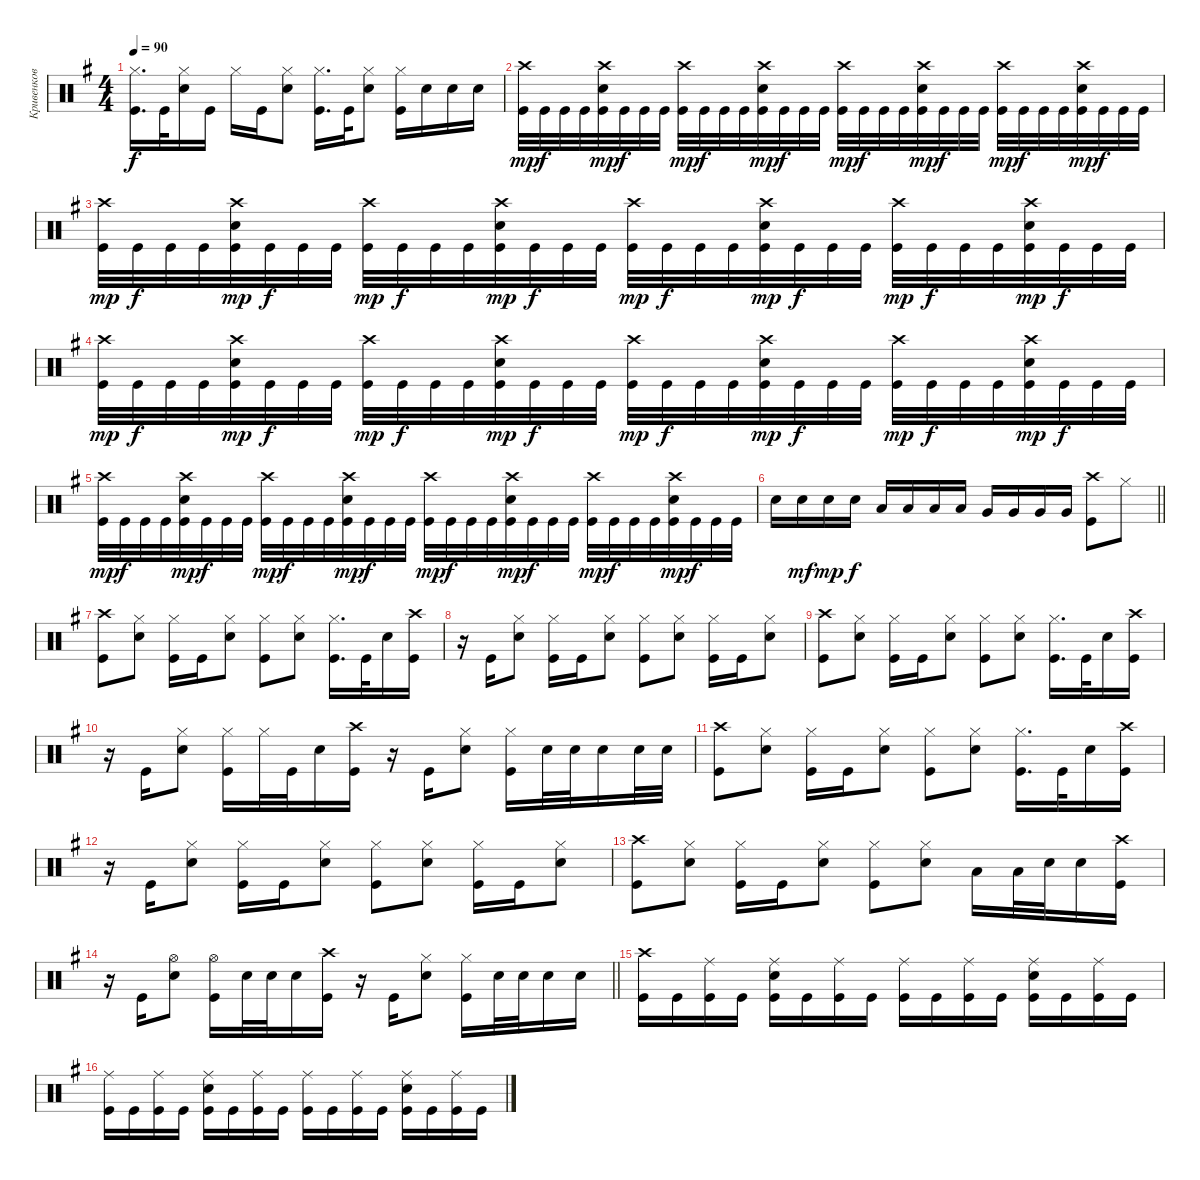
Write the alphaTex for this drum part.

\track ("Кривенков" "Кривенков") {instrument percussion}
\staff {score}
\articulation defaults
\ts (4 4)
\tempo 90
\clef neutral
\ks eminor
("Kick (hit)" "Hi-Hat (closed)").16{d dy f} "Kick (hit)".32 ("Hi-Hat (closed)" "Snare (hit) 2").16 "Kick (hit)".16 "Hi-Hat (closed)".16 "Kick (hit)".16 ("Snare (hit) 2" "Hi-Hat (closed)").8 ("Kick (hit)" "Hi-Hat (closed)").16{d} "Kick (hit)".32 ("Hi-Hat (closed)" "Snare (hit) 2").8 ("Hi-Hat (closed)" "Kick (hit)").16 "Snare (hit) 2".16 "Snare (hit) 2".16 "Snare (hit) 2".16 |
("Kick (hit)" "Crash high (hit)").32{dy mp} "Kick (hit)".32{dy f} "Kick (hit)".32 "Kick (hit)".32 ("Kick (hit)" "Snare (hit) 2" "Crash high (hit)").32{dy mp} "Kick (hit)".32{dy f} "Kick (hit)".32 "Kick (hit)".32 ("Kick (hit)" "Crash high (hit)").32{dy mp} "Kick (hit)".32{dy f} "Kick (hit)".32 "Kick (hit)".32 ("Kick (hit)" "Snare (hit) 2" "Crash high (hit)").32{dy mp} "Kick (hit)".32{dy f} "Kick (hit)".32 "Kick (hit)".32 ("Kick (hit)" "Crash high (hit)").32{dy mp} "Kick (hit)".32{dy f} "Kick (hit)".32 "Kick (hit)".32 ("Kick (hit)" "Snare (hit) 2" "Crash high (hit)").32{dy mp} "Kick (hit)".32{dy f} "Kick (hit)".32 "Kick (hit)".32 ("Kick (hit)" "Crash high (hit)").32{dy mp} "Kick (hit)".32{dy f} "Kick (hit)".32 "Kick (hit)".32 ("Kick (hit)" "Snare (hit) 2" "Crash high (hit)").32{dy mp} "Kick (hit)".32{dy f} "Kick (hit)".32 "Kick (hit)".32 |
("Kick (hit)" "Crash high (hit)").32{dy mp} "Kick (hit)".32{dy f} "Kick (hit)".32 "Kick (hit)".32 ("Kick (hit)" "Snare (hit) 2" "Crash high (hit)").32{dy mp} "Kick (hit)".32{dy f} "Kick (hit)".32 "Kick (hit)".32 ("Kick (hit)" "Crash high (hit)").32{dy mp} "Kick (hit)".32{dy f} "Kick (hit)".32 "Kick (hit)".32 ("Kick (hit)" "Snare (hit) 2" "Crash high (hit)").32{dy mp} "Kick (hit)".32{dy f} "Kick (hit)".32 "Kick (hit)".32 ("Kick (hit)" "Crash high (hit)").32{dy mp} "Kick (hit)".32{dy f} "Kick (hit)".32 "Kick (hit)".32 ("Kick (hit)" "Snare (hit) 2" "Crash high (hit)").32{dy mp} "Kick (hit)".32{dy f} "Kick (hit)".32 "Kick (hit)".32 ("Kick (hit)" "Crash high (hit)").32{dy mp} "Kick (hit)".32{dy f} "Kick (hit)".32 "Kick (hit)".32 ("Kick (hit)" "Snare (hit) 2" "Crash high (hit)").32{dy mp} "Kick (hit)".32{dy f} "Kick (hit)".32 "Kick (hit)".32 |
("Kick (hit)" "Crash high (hit)").32{dy mp} "Kick (hit)".32{dy f} "Kick (hit)".32 "Kick (hit)".32 ("Kick (hit)" "Snare (hit) 2" "Crash high (hit)").32{dy mp} "Kick (hit)".32{dy f} "Kick (hit)".32 "Kick (hit)".32 ("Kick (hit)" "Crash high (hit)").32{dy mp} "Kick (hit)".32{dy f} "Kick (hit)".32 "Kick (hit)".32 ("Kick (hit)" "Snare (hit) 2" "Crash high (hit)").32{dy mp} "Kick (hit)".32{dy f} "Kick (hit)".32 "Kick (hit)".32 ("Kick (hit)" "Crash high (hit)").32{dy mp} "Kick (hit)".32{dy f} "Kick (hit)".32 "Kick (hit)".32 ("Kick (hit)" "Snare (hit) 2" "Crash high (hit)").32{dy mp} "Kick (hit)".32{dy f} "Kick (hit)".32 "Kick (hit)".32 ("Kick (hit)" "Crash high (hit)").32{dy mp} "Kick (hit)".32{dy f} "Kick (hit)".32 "Kick (hit)".32 ("Kick (hit)" "Snare (hit) 2" "Crash high (hit)").32{dy mp} "Kick (hit)".32{dy f} "Kick (hit)".32 "Kick (hit)".32 |
("Kick (hit)" "Crash high (hit)").32{dy mp} "Kick (hit)".32{dy f} "Kick (hit)".32 "Kick (hit)".32 ("Kick (hit)" "Snare (hit) 2" "Crash high (hit)").32{dy mp} "Kick (hit)".32{dy f} "Kick (hit)".32 "Kick (hit)".32 ("Kick (hit)" "Crash high (hit)").32{dy mp} "Kick (hit)".32{dy f} "Kick (hit)".32 "Kick (hit)".32 ("Kick (hit)" "Snare (hit) 2" "Crash high (hit)").32{dy mp} "Kick (hit)".32{dy f} "Kick (hit)".32 "Kick (hit)".32 ("Kick (hit)" "Crash high (hit)").32{dy mp} "Kick (hit)".32{dy f} "Kick (hit)".32 "Kick (hit)".32 ("Kick (hit)" "Snare (hit) 2" "Crash high (hit)").32{dy mp} "Kick (hit)".32{dy f} "Kick (hit)".32 "Kick (hit)".32 ("Kick (hit)" "Crash high (hit)").32{dy mp} "Kick (hit)".32{dy f} "Kick (hit)".32 "Kick (hit)".32 ("Kick (hit)" "Snare (hit) 2" "Crash high (hit)").32{dy mp} "Kick (hit)".32{dy f} "Kick (hit)".32 "Kick (hit)".32 |
\barLineRight lightlight "Snare (hit) 2".16 "Snare (hit) 2".16{dy mf} "Snare (hit) 2".16{dy mp} "Snare (hit) 2".16{dy f} "Low Tom (hit)".16 "Low Tom (hit)".16 "Low Tom (hit)".16 "Low Tom (hit)".16 "Very Low Tom (hit)".16 "Very Low Tom (hit)".16 "Very Low Tom (hit)".16 "Very Low Tom (hit)".16
("Kick (hit)" "Crash high (hit)").8 "Hi-Hat (closed)".8 |
("Kick (hit)" "Crash high (hit)").8 ("Snare (hit) 2" "Hi-Hat (closed)").8 ("Kick (hit)" "Hi-Hat (closed)").16 "Kick (hit)".16 ("Snare (hit) 2" "Hi-Hat (closed)").8 ("Kick (hit)" "Hi-Hat (closed)").8 ("Snare (hit) 2" "Hi-Hat (closed)").8 ("Kick (hit)" "Hi-Hat (closed)").16{d} "Kick (hit)".32 "Snare (hit) 2".16 ("Kick (hit)" "Crash high (hit)").16 |
r.16 "Kick (hit)".16 ("Snare (hit) 2" "Hi-Hat (closed)").8 ("Kick (hit)" "Hi-Hat (closed)").16 "Kick (hit)".16 ("Snare (hit) 2" "Hi-Hat (closed)").8 ("Kick (hit)" "Hi-Hat (closed)").8 ("Snare (hit) 2" "Hi-Hat (closed)").8 ("Kick (hit)" "Hi-Hat (closed)").16 "Kick (hit)".16 ("Snare (hit) 2" "Hi-Hat (closed)").8 |
("Kick (hit)" "Crash high (hit)").8 ("Snare (hit) 2" "Hi-Hat (closed)").8 ("Kick (hit)" "Hi-Hat (closed)").16 "Kick (hit)".16 ("Snare (hit) 2" "Hi-Hat (closed)").8 ("Kick (hit)" "Hi-Hat (closed)").8 ("Snare (hit) 2" "Hi-Hat (closed)").8 ("Kick (hit)" "Hi-Hat (closed)").16{d} "Kick (hit)".32 "Snare (hit) 2".16 ("Kick (hit)" "Crash high (hit)").16 |
r.16 "Kick (hit)".16 ("Snare (hit) 2" "Hi-Hat (closed)").8 ("Kick (hit)" "Hi-Hat (closed)").16 "Hi-Hat (closed)".32 "Kick (hit)".32 "Snare (hit) 2".16 ("Kick (hit)" "Crash high (hit)").16 r.16 "Kick (hit)".16 ("Snare (hit) 2" "Hi-Hat (closed)").8 ("Kick (hit)" "Hi-Hat (closed)").16 "Snare (hit) 2".32 "Snare (hit) 2".32 "Snare (hit) 2".16 "Snare (hit) 2".32 "Snare (hit) 2".32 |
("Kick (hit)" "Crash high (hit)").8 ("Snare (hit) 2" "Hi-Hat (closed)").8 ("Kick (hit)" "Hi-Hat (closed)").16 "Kick (hit)".16 ("Snare (hit) 2" "Hi-Hat (closed)").8 ("Kick (hit)" "Hi-Hat (closed)").8 ("Snare (hit) 2" "Hi-Hat (closed)").8 ("Kick (hit)" "Hi-Hat (closed)").16{d} "Kick (hit)".32 "Snare (hit) 2".16 ("Kick (hit)" "Crash high (hit)").16 |
r.16 "Kick (hit)".16 ("Snare (hit) 2" "Hi-Hat (closed)").8 ("Kick (hit)" "Hi-Hat (closed)").16 "Kick (hit)".16 ("Snare (hit) 2" "Hi-Hat (closed)").8 ("Kick (hit)" "Hi-Hat (closed)").8 ("Snare (hit) 2" "Hi-Hat (closed)").8 ("Kick (hit)" "Hi-Hat (closed)").16 "Kick (hit)".16 ("Snare (hit) 2" "Hi-Hat (closed)").8 |
("Kick (hit)" "Crash high (hit)").8 ("Snare (hit) 2" "Hi-Hat (closed)").8 ("Kick (hit)" "Hi-Hat (closed)").16 "Kick (hit)".16 ("Snare (hit) 2" "Hi-Hat (closed)").8 ("Kick (hit)" "Hi-Hat (closed)").8 ("Snare (hit) 2" "Hi-Hat (closed)").8 "Low Tom (hit)".16 "Low Tom (hit)".32 "Snare (hit) 2".32 "Snare (hit) 2".16 ("Kick (hit)" "Crash high (hit)").16 |
\barLineRight lightlight
r.16 "Kick (hit)".16 ("Snare (hit) 2" "Hi-Hat (open)").8 ("Kick (hit)" "Hi-Hat (open)").16 "Snare (hit) 2".32 "Snare (hit) 2".32 "Snare (hit) 2".16 ("Kick (hit)" "Crash high (hit)").16 r.16 "Kick (hit)".16 ("Snare (hit) 2" "Hi-Hat (closed)").8 ("Kick (hit)" "Hi-Hat (closed)").16 "Snare (hit) 2".32 "Snare (hit) 2".32 "Snare (hit) 2".16 "Snare (hit) 2".16 |
("Kick (hit)" "Crash high (hit)").16 "Kick (hit)".16 ("Kick (hit)" "Ride (middle)").16 "Kick (hit)".16 ("Kick (hit)" "Ride (middle)" "Snare (hit) 2").16 "Kick (hit)".16 ("Kick (hit)" "Ride (middle)").16 "Kick (hit)".16 ("Kick (hit)" "Ride (middle)").16 "Kick (hit)".16 ("Kick (hit)" "Ride (middle)").16 "Kick (hit)".16 ("Kick (hit)" "Ride (middle)" "Snare (hit) 2").16 "Kick (hit)".16 ("Kick (hit)" "Ride (middle)").16 "Kick (hit)".16 |
("Kick (hit)" "Ride (middle)").16 "Kick (hit)".16 ("Kick (hit)" "Ride (middle)").16 "Kick (hit)".16 ("Kick (hit)" "Ride (middle)" "Snare (hit) 2").16 "Kick (hit)".16 ("Kick (hit)" "Ride (middle)").16 "Kick (hit)".16 ("Kick (hit)" "Ride (middle)").16 "Kick (hit)".16 ("Kick (hit)" "Ride (middle)").16 "Kick (hit)".16 ("Kick (hit)" "Ride (middle)" "Snare (hit) 2").16 "Kick (hit)".16 ("Kick (hit)" "Ride (middle)").16 "Kick (hit)".16
